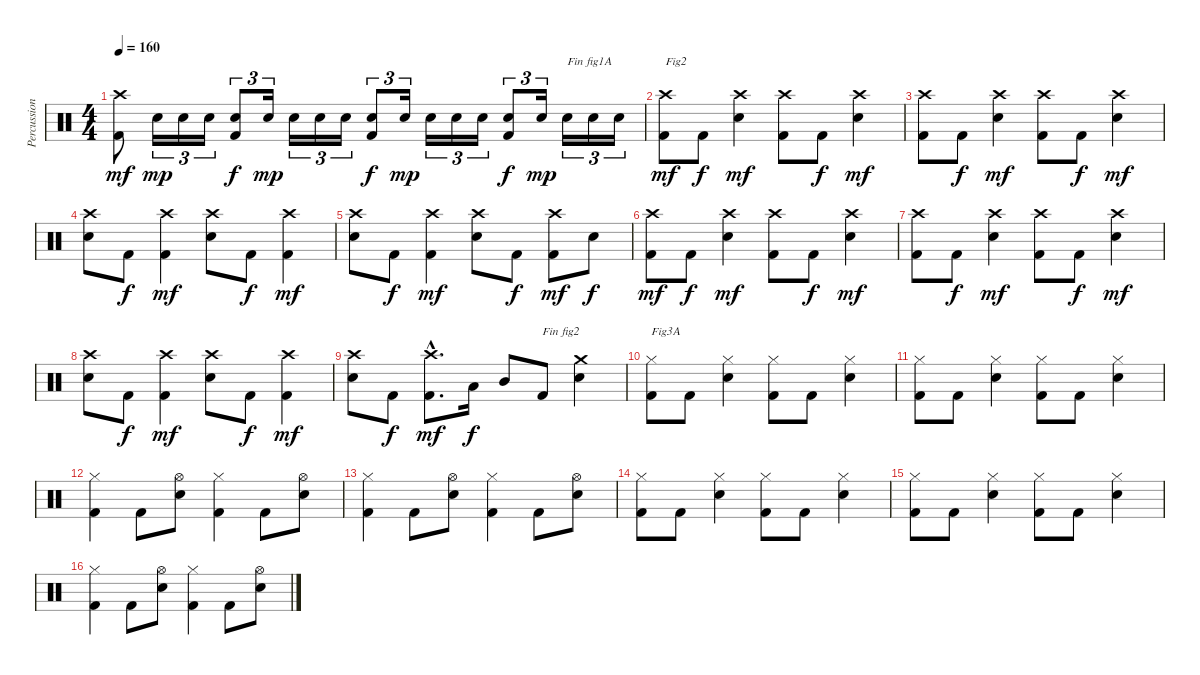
\track ("Percussions" "Percussion") {instrument percussion}
\staff {score}
\articulation defaults
\ts (4 4)
\tempo 160
\clef neutral
\ks c
("Kick (hit) 2" "Crash high (hit)").8{dy mf} "Electric Snare (hit)".16{tu (3 2) dy mp} "Electric Snare (hit)".16{tu (3 2)} "Electric Snare (hit)".16{tu (3 2)} ("Kick (hit) 2" "Electric Snare (hit)").8{tu (3 2) dy f} "Electric Snare (hit)".16{tu (3 2) dy mp} "Electric Snare (hit)".16{tu (3 2)} "Electric Snare (hit)".16{tu (3 2)} "Electric Snare (hit)".16{tu (3 2)} ("Kick (hit) 2" "Electric Snare (hit)").8{tu (3 2) dy f} "Electric Snare (hit)".16{tu (3 2) dy mp} "Electric Snare (hit)".16{tu (3 2)} "Electric Snare (hit)".16{tu (3 2)} "Electric Snare (hit)".16{tu (3 2)} ("Kick (hit) 2" "Electric Snare (hit)").8{tu (3 2) dy f} "Electric Snare (hit)".16{tu (3 2) dy mp} "Electric Snare (hit)".16{tu (3 2) txt "Fin fig1A"} "Electric Snare (hit)".16{tu (3 2)} "Electric Snare (hit)".16{tu (3 2)} |
("Kick (hit) 2" "Crash high (hit)").8{txt "Fig2" dy mf} "Kick (hit) 2".8{dy f} ("Electric Snare (hit)" "Crash high (hit)").4{dy mf} ("Kick (hit) 2" "Crash high (hit)").8 "Kick (hit) 2".8{dy f} ("Electric Snare (hit)" "Crash high (hit)").4{dy mf} |
("Kick (hit) 2" "Crash high (hit)").8 "Kick (hit) 2".8{dy f} ("Electric Snare (hit)" "Crash high (hit)").4{dy mf} ("Kick (hit) 2" "Crash high (hit)").8 "Kick (hit) 2".8{dy f} ("Electric Snare (hit)" "Crash high (hit)").4{dy mf} |
("Electric Snare (hit)" "Crash high (hit)").8 "Kick (hit) 2".8{dy f} ("Kick (hit) 2" "Crash high (hit)").4{dy mf} ("Electric Snare (hit)" "Crash high (hit)").8 "Kick (hit) 2".8{dy f} ("Kick (hit) 2" "Crash high (hit)").4{dy mf} |
("Electric Snare (hit)" "Crash high (hit)").8 "Kick (hit) 2".8{dy f} ("Kick (hit) 2" "Crash high (hit)").4{dy mf} ("Electric Snare (hit)" "Crash high (hit)").8 "Kick (hit) 2".8{dy f} ("Kick (hit) 2" "Crash high (hit)").8{dy mf} "Electric Snare (hit)".8{dy f} |
("Kick (hit) 2" "Crash high (hit)").8{dy mf} "Kick (hit) 2".8{dy f} ("Electric Snare (hit)" "Crash high (hit)").4{dy mf} ("Kick (hit) 2" "Crash high (hit)").8 "Kick (hit) 2".8{dy f} ("Electric Snare (hit)" "Crash high (hit)").4{dy mf} |
("Kick (hit) 2" "Crash high (hit)").8 "Kick (hit) 2".8{dy f} ("Electric Snare (hit)" "Crash high (hit)").4{dy mf} ("Kick (hit) 2" "Crash high (hit)").8 "Kick (hit) 2".8{dy f} ("Electric Snare (hit)" "Crash high (hit)").4{dy mf} |
("Electric Snare (hit)" "Crash high (hit)").8 "Kick (hit) 2".8{dy f} ("Kick (hit) 2" "Crash high (hit)").4{dy mf} ("Electric Snare (hit)" "Crash high (hit)").8 "Kick (hit) 2".8{dy f} ("Kick (hit) 2" "Crash high (hit)").4{dy mf} |
("Electric Snare (hit)" "Crash high (hit)").8 "Kick (hit) 2".8{dy f} ("Kick (hit) 2"{hac} "Crash high (hit)"{hac}).8{d dy mf} "Low Tom (hit)".16{dy f} "Mid Tom (hit)".8 "Kick (hit) 2".8{txt "Fin fig2"} ("Electric Snare (hit)" "Crash medium (hit)").4 |
("Kick (hit) 2" "Hi-Hat (closed)").8{txt "Fig3A"} "Kick (hit) 2".8 ("Electric Snare (hit)" "Hi-Hat (closed)").4 ("Kick (hit) 2" "Hi-Hat (closed)").8 "Kick (hit) 2".8 ("Electric Snare (hit)" "Hi-Hat (closed)").4 |
("Kick (hit) 2" "Hi-Hat (closed)").8 "Kick (hit) 2".8 ("Electric Snare (hit)" "Hi-Hat (closed)").4 ("Kick (hit) 2" "Hi-Hat (closed)").8 "Kick (hit) 2".8 ("Electric Snare (hit)" "Hi-Hat (closed)").4 |
("Kick (hit) 2" "Hi-Hat (closed)").4 "Kick (hit) 2".8 ("Electric Snare (hit)" "Hi-Hat (open)").8 ("Kick (hit) 2" "Hi-Hat (closed)").4 "Kick (hit) 2".8 ("Electric Snare (hit)" "Hi-Hat (open)").8 |
("Kick (hit) 2" "Hi-Hat (closed)").4 "Kick (hit) 2".8 ("Electric Snare (hit)" "Hi-Hat (open)").8 ("Kick (hit) 2" "Hi-Hat (closed)").4 "Kick (hit) 2".8 ("Electric Snare (hit)" "Hi-Hat (open)").8 |
("Kick (hit) 2" "Hi-Hat (closed)").8 "Kick (hit) 2".8 ("Electric Snare (hit)" "Hi-Hat (closed)").4 ("Kick (hit) 2" "Hi-Hat (closed)").8 "Kick (hit) 2".8 ("Electric Snare (hit)" "Hi-Hat (closed)").4 |
("Kick (hit) 2" "Hi-Hat (closed)").8 "Kick (hit) 2".8 ("Electric Snare (hit)" "Hi-Hat (closed)").4 ("Kick (hit) 2" "Hi-Hat (closed)").8 "Kick (hit) 2".8 ("Electric Snare (hit)" "Hi-Hat (closed)").4 |
("Kick (hit) 2" "Hi-Hat (closed)").4 "Kick (hit) 2".8 ("Electric Snare (hit)" "Hi-Hat (open)").8 ("Kick (hit) 2" "Hi-Hat (closed)").4 "Kick (hit) 2".8 ("Electric Snare (hit)" "Hi-Hat (open)").8
